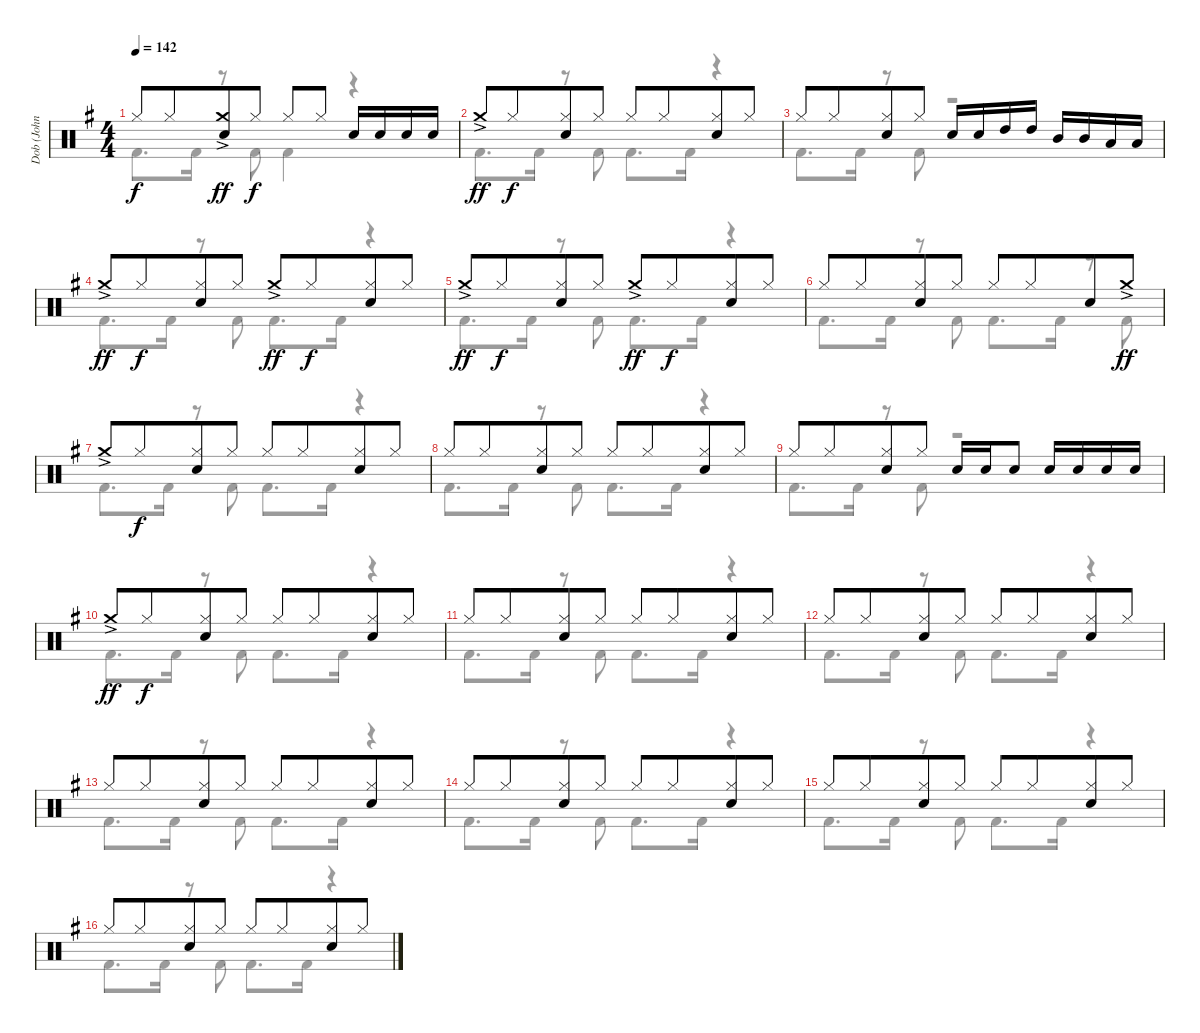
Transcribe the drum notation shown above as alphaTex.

\track ("Dob (John O'Reilly)" "Dob (John ") {instrument percussion}
\staff {score}
\articulation defaults
\voice
\ts (4 4)
\tempo 142
\clef neutral
\ks g "Hi-Hat (closed)".8{dy f} "Hi-Hat (closed)".8{beam merge}
("Crash medium (hit)"{ac} "Electric Snare (hit)").8{dy ff} "Hi-Hat (closed)".8{dy f} "Hi-Hat (closed)".8 "Hi-Hat (closed)".8 "Electric Snare (hit)".16 "Electric Snare (hit)".16 "Electric Snare (hit)".16 "Electric Snare (hit)".16 |
"Crash medium (hit)"{ac}.8{dy ff} "Hi-Hat (closed)".8{dy f beam merge} ("Hi-Hat (closed)" "Electric Snare (hit)").8 "Hi-Hat (closed)".8 "Hi-Hat (closed)".8 "Hi-Hat (closed)".8{beam merge} ("Hi-Hat (closed)" "Electric Snare (hit)").8 "Hi-Hat (closed)".8 |
"Hi-Hat (closed)".8 "Hi-Hat (closed)".8{beam merge} ("Hi-Hat (closed)" "Electric Snare (hit)").8 "Hi-Hat (closed)".8 "Electric Snare (hit)".16 "Electric Snare (hit)".16 "High Tom (hit)".16 "High Tom (hit)".16 "Mid Tom (hit)".16 "Mid Tom (hit)".16 "Low Tom (hit)".16 "Low Tom (hit)".16 |
"Crash medium (hit)"{ac}.8{dy ff} "Hi-Hat (closed)".8{dy f beam merge} ("Hi-Hat (closed)" "Electric Snare (hit)").8 "Hi-Hat (closed)".8 "Crash medium (hit)"{ac}.8{dy ff} "Hi-Hat (closed)".8{dy f beam merge} ("Hi-Hat (closed)" "Electric Snare (hit)").8 "Hi-Hat (closed)".8 |
"Crash medium (hit)"{ac}.8{dy ff} "Hi-Hat (closed)".8{dy f beam merge} ("Hi-Hat (closed)" "Electric Snare (hit)").8 "Hi-Hat (closed)".8 "Crash medium (hit)"{ac}.8{dy ff} "Hi-Hat (closed)".8{dy f beam merge} ("Hi-Hat (closed)" "Electric Snare (hit)").8 "Hi-Hat (closed)".8 |
"Hi-Hat (closed)".8 "Hi-Hat (closed)".8{beam merge} ("Hi-Hat (closed)" "Electric Snare (hit)").8 "Hi-Hat (closed)".8 "Hi-Hat (closed)".8 "Hi-Hat (closed)".8{beam merge} "Electric Snare (hit)".8 "Crash medium (hit)"{ac}.8{dy ff} |
"Crash medium (hit)"{ac}.8 "Hi-Hat (closed)".8{dy f beam merge} ("Hi-Hat (closed)" "Electric Snare (hit)").8 "Hi-Hat (closed)".8 "Hi-Hat (closed)".8 "Hi-Hat (closed)".8{beam merge} ("Hi-Hat (closed)" "Electric Snare (hit)").8 "Hi-Hat (closed)".8 |
"Hi-Hat (closed)".8 "Hi-Hat (closed)".8{beam merge} ("Hi-Hat (closed)" "Electric Snare (hit)").8 "Hi-Hat (closed)".8 "Hi-Hat (closed)".8 "Hi-Hat (closed)".8{beam merge} ("Hi-Hat (closed)" "Electric Snare (hit)").8 "Hi-Hat (closed)".8 |
"Hi-Hat (closed)".8 "Hi-Hat (closed)".8{beam merge} ("Hi-Hat (closed)" "Electric Snare (hit)").8 "Hi-Hat (closed)".8 "Electric Snare (hit)".16 "Electric Snare (hit)".16 "Electric Snare (hit)".8 "Electric Snare (hit)".16 "Electric Snare (hit)".16 "Electric Snare (hit)".16 "Electric Snare (hit)".16 |
"Crash medium (hit)"{ac}.8{dy ff} "Hi-Hat (closed)".8{dy f beam merge} ("Hi-Hat (closed)" "Electric Snare (hit)").8 "Hi-Hat (closed)".8 "Hi-Hat (closed)".8 "Hi-Hat (closed)".8{beam merge} ("Hi-Hat (closed)" "Electric Snare (hit)").8 "Hi-Hat (closed)".8 |
"Hi-Hat (closed)".8 "Hi-Hat (closed)".8{beam merge} ("Hi-Hat (closed)" "Electric Snare (hit)").8 "Hi-Hat (closed)".8 "Hi-Hat (closed)".8 "Hi-Hat (closed)".8{beam merge} ("Hi-Hat (closed)" "Electric Snare (hit)").8 "Hi-Hat (closed)".8 |
"Hi-Hat (closed)".8 "Hi-Hat (closed)".8{beam merge} ("Hi-Hat (closed)" "Electric Snare (hit)").8 "Hi-Hat (closed)".8 "Hi-Hat (closed)".8 "Hi-Hat (closed)".8{beam merge} ("Hi-Hat (closed)" "Electric Snare (hit)").8 "Hi-Hat (closed)".8 |
"Hi-Hat (closed)".8 "Hi-Hat (closed)".8{beam merge} ("Hi-Hat (closed)" "Electric Snare (hit)").8 "Hi-Hat (closed)".8 "Hi-Hat (closed)".8 "Hi-Hat (closed)".8{beam merge} ("Hi-Hat (closed)" "Electric Snare (hit)").8 "Hi-Hat (closed)".8 |
"Hi-Hat (closed)".8 "Hi-Hat (closed)".8{beam merge} ("Hi-Hat (closed)" "Electric Snare (hit)").8 "Hi-Hat (closed)".8 "Hi-Hat (closed)".8 "Hi-Hat (closed)".8{beam merge} ("Hi-Hat (closed)" "Electric Snare (hit)").8 "Hi-Hat (closed)".8 |
"Hi-Hat (closed)".8 "Hi-Hat (closed)".8{beam merge} ("Hi-Hat (closed)" "Electric Snare (hit)").8 "Hi-Hat (closed)".8 "Hi-Hat (closed)".8 "Hi-Hat (closed)".8{beam merge} ("Hi-Hat (closed)" "Electric Snare (hit)").8 "Hi-Hat (closed)".8 |
"Hi-Hat (closed)".8 "Hi-Hat (closed)".8{beam merge} ("Hi-Hat (closed)" "Electric Snare (hit)").8 "Hi-Hat (closed)".8 "Hi-Hat (closed)".8 "Hi-Hat (closed)".8{beam merge} ("Hi-Hat (closed)" "Electric Snare (hit)").8 "Hi-Hat (closed)".8
\voice
\clef neutral
\ottava regular
\simile none
\ks g "Kick (hit) 2".8{d dy f} "Kick (hit) 2".16
r.8 "Kick (hit) 2".8 "Kick (hit) 2".4 r.4 |
"Kick (hit) 2".8{d} "Kick (hit) 2".16 r.8 "Kick (hit) 2".8 "Kick (hit) 2".8{d} "Kick (hit) 2".16 r.4 |
"Kick (hit) 2".8{d} "Kick (hit) 2".16 r.8 "Kick (hit) 2".8 r.2 |
"Kick (hit) 2".8{d} "Kick (hit) 2".16 r.8 "Kick (hit) 2".8 "Kick (hit) 2".8{d} "Kick (hit) 2".16 r.4 |
"Kick (hit) 2".8{d} "Kick (hit) 2".16 r.8 "Kick (hit) 2".8 "Kick (hit) 2".8{d} "Kick (hit) 2".16 r.4 |
"Kick (hit) 2".8{d} "Kick (hit) 2".16 r.8 "Kick (hit) 2".8 "Kick (hit) 2".8{d} "Kick (hit) 2".16 r.8 "Kick (hit) 2".8 |
"Kick (hit) 2".8{d} "Kick (hit) 2".16 r.8 "Kick (hit) 2".8 "Kick (hit) 2".8{d} "Kick (hit) 2".16 r.4 |
"Kick (hit) 2".8{d} "Kick (hit) 2".16 r.8 "Kick (hit) 2".8 "Kick (hit) 2".8{d} "Kick (hit) 2".16 r.4 |
"Kick (hit) 2".8{d} "Kick (hit) 2".16 r.8 "Kick (hit) 2".8 r.2 |
"Kick (hit) 2".8{d} "Kick (hit) 2".16 r.8 "Kick (hit) 2".8 "Kick (hit) 2".8{d} "Kick (hit) 2".16 r.4 |
"Kick (hit) 2".8{d} "Kick (hit) 2".16 r.8 "Kick (hit) 2".8 "Kick (hit) 2".8{d} "Kick (hit) 2".16 r.4 |
"Kick (hit) 2".8{d} "Kick (hit) 2".16 r.8 "Kick (hit) 2".8 "Kick (hit) 2".8{d} "Kick (hit) 2".16 r.4 |
"Kick (hit) 2".8{d} "Kick (hit) 2".16 r.8 "Kick (hit) 2".8 "Kick (hit) 2".8{d} "Kick (hit) 2".16 r.4 |
"Kick (hit) 2".8{d} "Kick (hit) 2".16 r.8 "Kick (hit) 2".8 "Kick (hit) 2".8{d} "Kick (hit) 2".16 r.4 |
"Kick (hit) 2".8{d} "Kick (hit) 2".16 r.8 "Kick (hit) 2".8 "Kick (hit) 2".8{d} "Kick (hit) 2".16 r.4 |
"Kick (hit) 2".8{d} "Kick (hit) 2".16 r.8 "Kick (hit) 2".8 "Kick (hit) 2".8{d} "Kick (hit) 2".16 r.4
